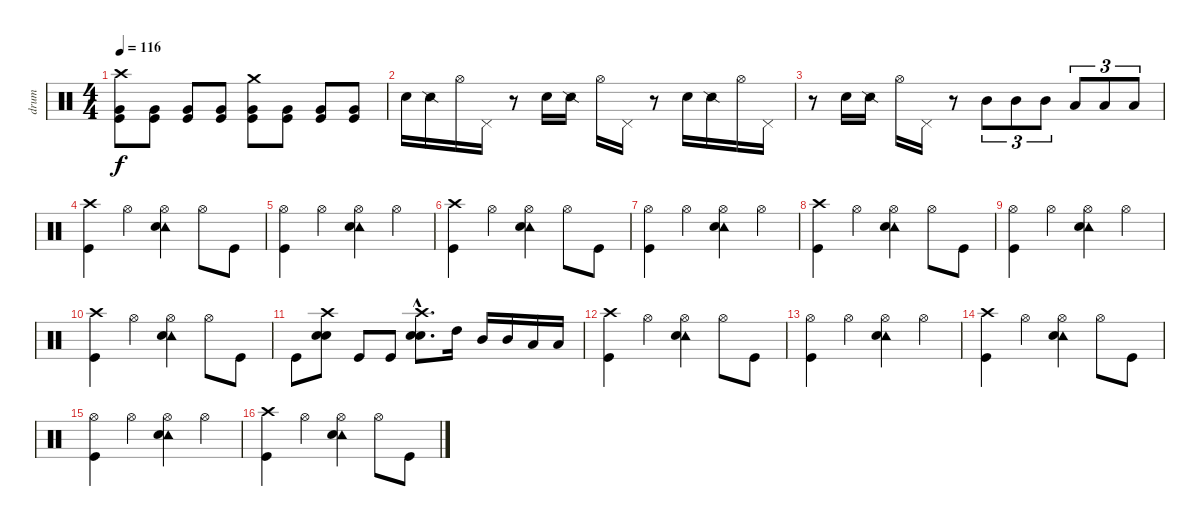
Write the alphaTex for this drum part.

\track ("drum" "drum") {instrument percussion}
\staff {score}
\articulation defaults
\ts (4 4)
\tempo 116
\clef neutral
\ks c
("Crash high (hit)" "Very Low Tom (hit)" "Kick (hit)").8{dy f} ("Very Low Tom (hit)" "Kick (hit)").8 ("Very Low Tom (hit)" "Kick (hit)").8 ("Very Low Tom (hit)" "Kick (hit)").8 ("Crash medium (hit)" "Very Low Tom (hit)" "Kick (hit)").8 ("Very Low Tom (hit)" "Kick (hit)").8 ("Very Low Tom (hit)" "Kick (hit)").8 ("Very Low Tom (hit)" "Kick (hit)").8 |
"Snare (hit) 2".16 "Snare (side stick) 2".16 "Hi-Hat (open)".16 "Pedal Hi-Hat (hit)".16 r.8 "Snare (hit) 2".16 "Snare (side stick) 2".16 "Hi-Hat (open)".16 "Pedal Hi-Hat (hit)".16 r.8 "Snare (hit) 2".16 "Snare (side stick) 2".16 "Hi-Hat (open)".16 "Pedal Hi-Hat (hit)".16 |
r.8 "Snare (hit) 2".16 "Snare (side stick) 2".16 "Hi-Hat (open)".16 "Pedal Hi-Hat (hit)".16 r.8 "Mid Tom (hit)".8{tu (3 2)} "Mid Tom (hit)".8{tu (3 2)} "Mid Tom (hit)".8{tu (3 2)} "Low Tom (hit)".8{tu (3 2)} "Low Tom (hit)".8{tu (3 2)} "Low Tom (hit)".8{tu (3 2)} |
("Crash high (hit)" "Kick (hit)").4 "Hi-Hat (open)".4 ("Hi-Hat (open)" "Tambourine (hit)" "Snare (hit) 2").4 "Hi-Hat (open)".8 "Kick (hit)".8 |
("Hi-Hat (open)" "Kick (hit)").4 "Hi-Hat (open)".4 ("Hi-Hat (open)" "Tambourine (hit)" "Snare (hit) 2").4 "Hi-Hat (open)".4 |
("Crash high (hit)" "Kick (hit)").4 "Hi-Hat (open)".4 ("Hi-Hat (open)" "Tambourine (hit)" "Snare (hit) 2").4 "Hi-Hat (open)".8 "Kick (hit)".8 |
("Hi-Hat (open)" "Kick (hit)").4 "Hi-Hat (open)".4 ("Hi-Hat (open)" "Tambourine (hit)" "Snare (hit) 2").4 "Hi-Hat (open)".4 |
("Crash high (hit)" "Kick (hit)").4 "Hi-Hat (open)".4 ("Hi-Hat (open)" "Tambourine (hit)" "Snare (hit) 2").4 "Hi-Hat (open)".8 "Kick (hit)".8 |
("Hi-Hat (open)" "Kick (hit)").4 "Hi-Hat (open)".4 ("Hi-Hat (open)" "Tambourine (hit)" "Snare (hit) 2").4 "Hi-Hat (open)".4 |
("Crash high (hit)" "Kick (hit)").4 "Hi-Hat (open)".4 ("Hi-Hat (open)" "Tambourine (hit)" "Snare (hit) 2").4 "Hi-Hat (open)".8 "Kick (hit)".8 |
"Kick (hit)".8 ("Crash high (hit)" "Snare (hit) 2" "Snare (hit) 2").8 "Kick (hit)".8 "Kick (hit)".8 ("Crash high (hit)"{hac} "Snare (hit) 2"{hac} "Snare (hit) 2"{hac}).8{d} "High Tom (hit)".16 "Mid Tom (hit)".16 "Mid Tom (hit)".16 "Low Tom (hit)".16 "Low Tom (hit)".16 |
("Crash high (hit)" "Kick (hit)").4 "Hi-Hat (open)".4 ("Hi-Hat (open)" "Tambourine (hit)" "Snare (hit) 2").4 "Hi-Hat (open)".8 "Kick (hit)".8 |
("Hi-Hat (open)" "Kick (hit)").4 "Hi-Hat (open)".4 ("Hi-Hat (open)" "Tambourine (hit)" "Snare (hit) 2").4 "Hi-Hat (open)".4 |
("Crash high (hit)" "Kick (hit)").4 "Hi-Hat (open)".4 ("Hi-Hat (open)" "Tambourine (hit)" "Snare (hit) 2").4 "Hi-Hat (open)".8 "Kick (hit)".8 |
("Hi-Hat (open)" "Kick (hit)").4 "Hi-Hat (open)".4 ("Hi-Hat (open)" "Tambourine (hit)" "Snare (hit) 2").4 "Hi-Hat (open)".4 |
("Crash high (hit)" "Kick (hit)").4 "Hi-Hat (open)".4 ("Hi-Hat (open)" "Tambourine (hit)" "Snare (hit) 2").4 "Hi-Hat (open)".8 "Kick (hit)".8
